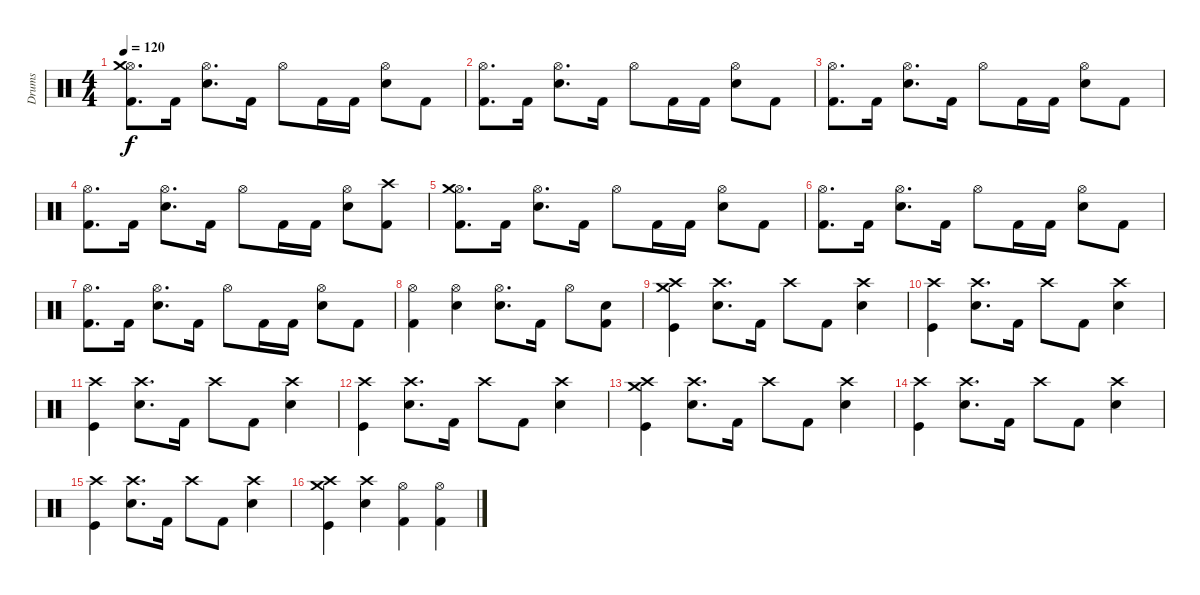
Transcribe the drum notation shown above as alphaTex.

\track ("Drums" "Drums") {instrument percussion}
\staff {score}
\articulation defaults
\ts (4 4)
\tempo 120
\clef neutral
\ks c
("Hi-Hat (open)" "Crash medium (hit)" "Kick (hit) 2").8{d dy f} "Kick (hit) 2".16 ("Hi-Hat (open)" "Snare (hit) 2").8{d} "Kick (hit) 2".16 "Hi-Hat (open)".8 "Kick (hit) 2".16 "Kick (hit) 2".16 ("Hi-Hat (open)" "Snare (hit) 2").8 "Kick (hit) 2".8 |
("Hi-Hat (open)" "Kick (hit) 2").8{d} "Kick (hit) 2".16 ("Hi-Hat (open)" "Snare (hit) 2").8{d} "Kick (hit) 2".16 "Hi-Hat (open)".8 "Kick (hit) 2".16 "Kick (hit) 2".16 ("Hi-Hat (open)" "Snare (hit) 2").8 "Kick (hit) 2".8 |
("Hi-Hat (open)" "Kick (hit) 2").8{d} "Kick (hit) 2".16 ("Hi-Hat (open)" "Snare (hit) 2").8{d} "Kick (hit) 2".16 "Hi-Hat (open)".8 "Kick (hit) 2".16 "Kick (hit) 2".16 ("Hi-Hat (open)" "Snare (hit) 2").8 "Kick (hit) 2".8 |
("Hi-Hat (open)" "Kick (hit) 2").8{d} "Kick (hit) 2".16 ("Hi-Hat (open)" "Snare (hit) 2").8{d} "Kick (hit) 2".16 "Hi-Hat (open)".8 "Kick (hit) 2".16 "Kick (hit) 2".16 ("Hi-Hat (open)" "Snare (hit) 2").8 ("Crash high (hit)" "Kick (hit) 2").8 |
("Hi-Hat (open)" "Crash medium (hit)" "Kick (hit) 2").8{d} "Kick (hit) 2".16 ("Hi-Hat (open)" "Snare (hit) 2").8{d} "Kick (hit) 2".16 "Hi-Hat (open)".8 "Kick (hit) 2".16 "Kick (hit) 2".16 ("Hi-Hat (open)" "Snare (hit) 2").8 "Kick (hit) 2".8 |
("Hi-Hat (open)" "Kick (hit) 2").8{d} "Kick (hit) 2".16 ("Hi-Hat (open)" "Snare (hit) 2").8{d} "Kick (hit) 2".16 "Hi-Hat (open)".8 "Kick (hit) 2".16 "Kick (hit) 2".16 ("Hi-Hat (open)" "Snare (hit) 2").8 "Kick (hit) 2".8 |
("Hi-Hat (open)" "Kick (hit) 2").8{d} "Kick (hit) 2".16 ("Hi-Hat (open)" "Snare (hit) 2").8{d} "Kick (hit) 2".16 "Hi-Hat (open)".8 "Kick (hit) 2".16 "Kick (hit) 2".16 ("Hi-Hat (open)" "Snare (hit) 2").8 "Kick (hit) 2".8 |
("Hi-Hat (open)" "Kick (hit) 2").4 ("Hi-Hat (open)" "Snare (hit) 2").4 ("Hi-Hat (open)" "Snare (hit) 2").8{d} "Kick (hit) 2".16 "Hi-Hat (open)".8 ("Snare (hit) 2" "Kick (hit) 2").8 |
("Crash high (hit)" "Crash medium (hit)" "Kick (hit)").4 ("Crash high (hit)" "Snare (hit) 2").8{d} "Kick (hit) 2".16 "Crash high (hit)".8 "Kick (hit) 2".8 ("Crash high (hit)" "Snare (hit) 2").4 |
("Crash high (hit)" "Kick (hit)").4 ("Crash high (hit)" "Snare (hit) 2").8{d} "Kick (hit) 2".16 "Crash high (hit)".8 "Kick (hit) 2".8 ("Crash high (hit)" "Snare (hit) 2").4 |
("Crash high (hit)" "Kick (hit)").4 ("Crash high (hit)" "Snare (hit) 2").8{d} "Kick (hit) 2".16 "Crash high (hit)".8 "Kick (hit) 2".8 ("Crash high (hit)" "Snare (hit) 2").4 |
("Crash high (hit)" "Kick (hit)").4 ("Crash high (hit)" "Snare (hit) 2").8{d} "Kick (hit) 2".16 "Crash high (hit)".8 "Kick (hit) 2".8 ("Crash high (hit)" "Snare (hit) 2").4 |
("Crash high (hit)" "Crash medium (hit)" "Kick (hit)").4 ("Crash high (hit)" "Snare (hit) 2").8{d} "Kick (hit) 2".16 "Crash high (hit)".8 "Kick (hit) 2".8 ("Crash high (hit)" "Snare (hit) 2").4 |
("Crash high (hit)" "Kick (hit)").4 ("Crash high (hit)" "Snare (hit) 2").8{d} "Kick (hit) 2".16 "Crash high (hit)".8 "Kick (hit) 2".8 ("Crash high (hit)" "Snare (hit) 2").4 |
("Crash high (hit)" "Kick (hit)").4 ("Crash high (hit)" "Snare (hit) 2").8{d} "Kick (hit) 2".16 "Crash high (hit)".8 "Kick (hit) 2".8 ("Crash high (hit)" "Snare (hit) 2").4 |
("Crash high (hit)" "Crash medium (hit)" "Kick (hit)").4 ("Crash high (hit)" "Snare (hit) 2").4 ("Hi-Hat (open)" "Kick (hit) 2").4 ("Hi-Hat (open)" "Kick (hit) 2").4
